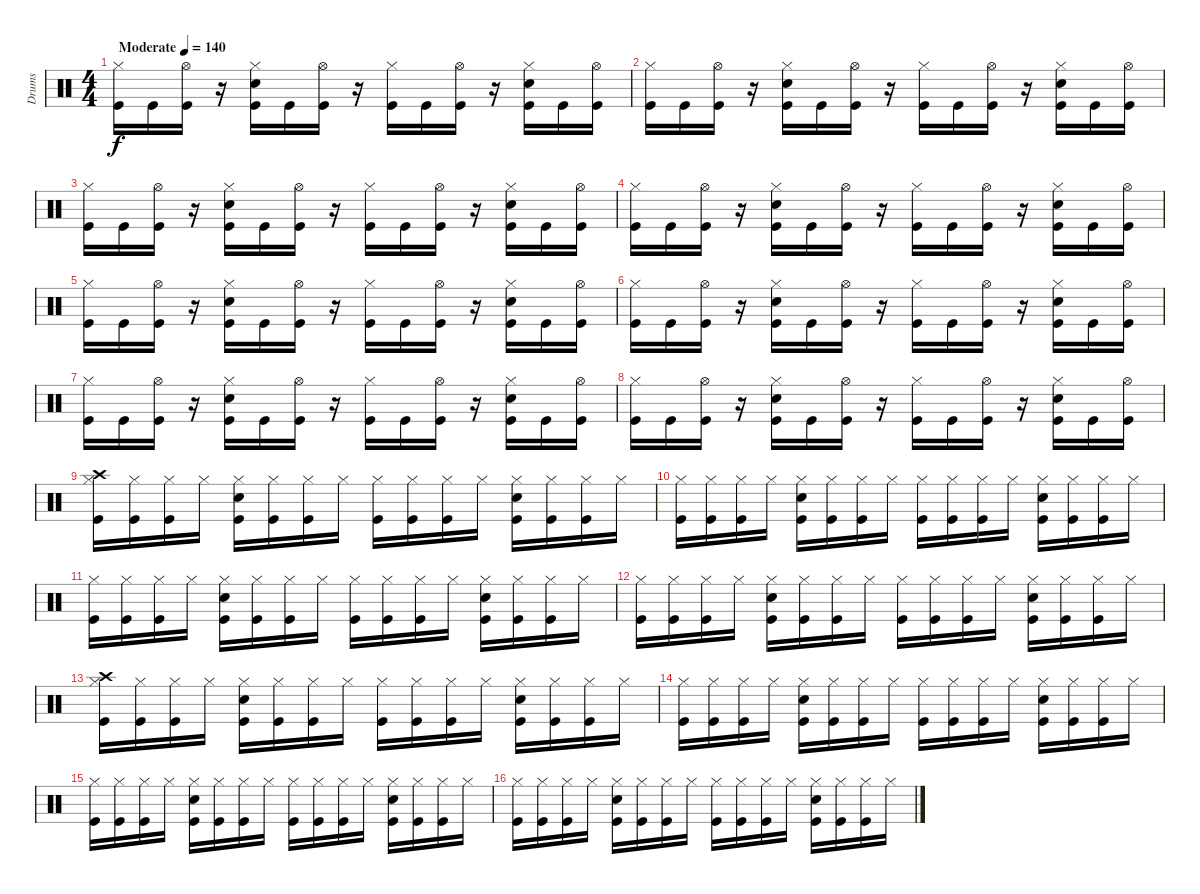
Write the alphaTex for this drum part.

\track ("Drums" "Drums") {instrument percussion}
\staff {score}
\articulation defaults
\ts (4 4)
\tempo (140 "Moderate")
\clef neutral
\ks c
("Hi-Hat (closed)" "Kick (hit)").16{dy f} "Kick (hit)".16 ("Hi-Hat (open)" "Kick (hit)").16 r.16 ("Hi-Hat (closed)" "Electric Snare (hit)" "Kick (hit)").16 "Kick (hit)".16 ("Kick (hit)" "Hi-Hat (open)").16 r.16 ("Hi-Hat (closed)" "Kick (hit)").16 "Kick (hit)".16 ("Kick (hit)" "Hi-Hat (open)").16 r.16 ("Hi-Hat (closed)" "Electric Snare (hit)" "Kick (hit)").16 "Kick (hit)".16 ("Kick (hit)" "Hi-Hat (open)").16 |
("Hi-Hat (closed)" "Kick (hit)").16 "Kick (hit)".16 ("Hi-Hat (open)" "Kick (hit)").16 r.16 ("Hi-Hat (closed)" "Electric Snare (hit)" "Kick (hit)").16 "Kick (hit)".16 ("Kick (hit)" "Hi-Hat (open)").16 r.16 ("Hi-Hat (closed)" "Kick (hit)").16 "Kick (hit)".16 ("Kick (hit)" "Hi-Hat (open)").16 r.16 ("Hi-Hat (closed)" "Electric Snare (hit)" "Kick (hit)").16 "Kick (hit)".16 ("Kick (hit)" "Hi-Hat (open)").16 |
("Hi-Hat (closed)" "Kick (hit)").16 "Kick (hit)".16 ("Hi-Hat (open)" "Kick (hit)").16 r.16 ("Hi-Hat (closed)" "Electric Snare (hit)" "Kick (hit)").16 "Kick (hit)".16 ("Kick (hit)" "Hi-Hat (open)").16 r.16 ("Hi-Hat (closed)" "Kick (hit)").16 "Kick (hit)".16 ("Kick (hit)" "Hi-Hat (open)").16 r.16 ("Hi-Hat (closed)" "Electric Snare (hit)" "Kick (hit)").16 "Kick (hit)".16 ("Kick (hit)" "Hi-Hat (open)").16 |
("Hi-Hat (closed)" "Kick (hit)").16 "Kick (hit)".16 ("Hi-Hat (open)" "Kick (hit)").16 r.16 ("Hi-Hat (closed)" "Electric Snare (hit)" "Kick (hit)").16 "Kick (hit)".16 ("Kick (hit)" "Hi-Hat (open)").16 r.16 ("Hi-Hat (closed)" "Kick (hit)").16 "Kick (hit)".16 ("Kick (hit)" "Hi-Hat (open)").16 r.16 ("Hi-Hat (closed)" "Electric Snare (hit)" "Kick (hit)").16 "Kick (hit)".16 ("Kick (hit)" "Hi-Hat (open)").16 |
("Hi-Hat (closed)" "Kick (hit)").16 "Kick (hit)".16 ("Hi-Hat (open)" "Kick (hit)").16 r.16 ("Hi-Hat (closed)" "Electric Snare (hit)" "Kick (hit)").16 "Kick (hit)".16 ("Kick (hit)" "Hi-Hat (open)").16 r.16 ("Hi-Hat (closed)" "Kick (hit)").16 "Kick (hit)".16 ("Kick (hit)" "Hi-Hat (open)").16 r.16 ("Hi-Hat (closed)" "Electric Snare (hit)" "Kick (hit)").16 "Kick (hit)".16 ("Kick (hit)" "Hi-Hat (open)").16 |
("Hi-Hat (closed)" "Kick (hit)").16 "Kick (hit)".16 ("Hi-Hat (open)" "Kick (hit)").16 r.16 ("Hi-Hat (closed)" "Electric Snare (hit)" "Kick (hit)").16 "Kick (hit)".16 ("Kick (hit)" "Hi-Hat (open)").16 r.16 ("Hi-Hat (closed)" "Kick (hit)").16 "Kick (hit)".16 ("Kick (hit)" "Hi-Hat (open)").16 r.16 ("Hi-Hat (closed)" "Electric Snare (hit)" "Kick (hit)").16 "Kick (hit)".16 ("Kick (hit)" "Hi-Hat (open)").16 |
("Hi-Hat (closed)" "Kick (hit)").16 "Kick (hit)".16 ("Hi-Hat (open)" "Kick (hit)").16 r.16 ("Hi-Hat (closed)" "Electric Snare (hit)" "Kick (hit)").16 "Kick (hit)".16 ("Kick (hit)" "Hi-Hat (open)").16 r.16 ("Hi-Hat (closed)" "Kick (hit)").16 "Kick (hit)".16 ("Kick (hit)" "Hi-Hat (open)").16 r.16 ("Hi-Hat (closed)" "Electric Snare (hit)" "Kick (hit)").16 "Kick (hit)".16 ("Kick (hit)" "Hi-Hat (open)").16 |
("Hi-Hat (closed)" "Kick (hit)").16 "Kick (hit)".16 ("Hi-Hat (open)" "Kick (hit)").16 r.16 ("Hi-Hat (closed)" "Electric Snare (hit)" "Kick (hit)").16 "Kick (hit)".16 ("Kick (hit)" "Hi-Hat (open)").16 r.16 ("Hi-Hat (closed)" "Kick (hit)").16 "Kick (hit)".16 ("Kick (hit)" "Hi-Hat (open)").16 r.16 ("Hi-Hat (closed)" "Electric Snare (hit)" "Kick (hit)").16 "Kick (hit)".16 ("Kick (hit)" "Hi-Hat (open)").16 |
("Hi-Hat (closed)" "Kick (hit)" "Crash high (hit)").16 ("Hi-Hat (closed)" "Kick (hit)").16 ("Hi-Hat (closed)" "Kick (hit)").16 "Hi-Hat (closed)".16 ("Hi-Hat (closed)" "Electric Snare (hit)" "Kick (hit)").16 ("Kick (hit)" "Hi-Hat (closed)").16 ("Kick (hit)" "Hi-Hat (closed)").16 "Hi-Hat (closed)".16 ("Hi-Hat (closed)" "Kick (hit)").16 ("Kick (hit)" "Hi-Hat (closed)").16 ("Kick (hit)" "Hi-Hat (closed)").16 "Hi-Hat (closed)".16 ("Hi-Hat (closed)" "Electric Snare (hit)" "Kick (hit)").16 ("Kick (hit)" "Hi-Hat (closed)").16 ("Kick (hit)" "Hi-Hat (closed)").16 "Hi-Hat (closed)".16 |
("Hi-Hat (closed)" "Kick (hit)").16 ("Hi-Hat (closed)" "Kick (hit)").16 ("Hi-Hat (closed)" "Kick (hit)").16 "Hi-Hat (closed)".16 ("Hi-Hat (closed)" "Electric Snare (hit)" "Kick (hit)").16 ("Kick (hit)" "Hi-Hat (closed)").16 ("Kick (hit)" "Hi-Hat (closed)").16 "Hi-Hat (closed)".16 ("Hi-Hat (closed)" "Kick (hit)").16 ("Kick (hit)" "Hi-Hat (closed)").16 ("Kick (hit)" "Hi-Hat (closed)").16 "Hi-Hat (closed)".16 ("Hi-Hat (closed)" "Electric Snare (hit)" "Kick (hit)").16 ("Kick (hit)" "Hi-Hat (closed)").16 ("Kick (hit)" "Hi-Hat (closed)").16 "Hi-Hat (closed)".16 |
("Hi-Hat (closed)" "Kick (hit)").16 ("Hi-Hat (closed)" "Kick (hit)").16 ("Hi-Hat (closed)" "Kick (hit)").16 "Hi-Hat (closed)".16 ("Hi-Hat (closed)" "Electric Snare (hit)" "Kick (hit)").16 ("Kick (hit)" "Hi-Hat (closed)").16 ("Kick (hit)" "Hi-Hat (closed)").16 "Hi-Hat (closed)".16 ("Hi-Hat (closed)" "Kick (hit)").16 ("Kick (hit)" "Hi-Hat (closed)").16 ("Kick (hit)" "Hi-Hat (closed)").16 "Hi-Hat (closed)".16 ("Hi-Hat (closed)" "Electric Snare (hit)" "Kick (hit)").16 ("Kick (hit)" "Hi-Hat (closed)").16 ("Kick (hit)" "Hi-Hat (closed)").16 "Hi-Hat (closed)".16 |
("Hi-Hat (closed)" "Kick (hit)").16 ("Hi-Hat (closed)" "Kick (hit)").16 ("Hi-Hat (closed)" "Kick (hit)").16 "Hi-Hat (closed)".16 ("Hi-Hat (closed)" "Electric Snare (hit)" "Kick (hit)").16 ("Kick (hit)" "Hi-Hat (closed)").16 ("Kick (hit)" "Hi-Hat (closed)").16 "Hi-Hat (closed)".16 ("Hi-Hat (closed)" "Kick (hit)").16 ("Kick (hit)" "Hi-Hat (closed)").16 ("Kick (hit)" "Hi-Hat (closed)").16 "Hi-Hat (closed)".16 ("Hi-Hat (closed)" "Electric Snare (hit)" "Kick (hit)").16 ("Kick (hit)" "Hi-Hat (closed)").16 ("Kick (hit)" "Hi-Hat (closed)").16 "Hi-Hat (closed)".16 |
("Hi-Hat (closed)" "Kick (hit)" "Crash high (hit)").16 ("Hi-Hat (closed)" "Kick (hit)").16 ("Hi-Hat (closed)" "Kick (hit)").16 "Hi-Hat (closed)".16 ("Hi-Hat (closed)" "Electric Snare (hit)" "Kick (hit)").16 ("Kick (hit)" "Hi-Hat (closed)").16 ("Kick (hit)" "Hi-Hat (closed)").16 "Hi-Hat (closed)".16 ("Hi-Hat (closed)" "Kick (hit)").16 ("Kick (hit)" "Hi-Hat (closed)").16 ("Kick (hit)" "Hi-Hat (closed)").16 "Hi-Hat (closed)".16 ("Hi-Hat (closed)" "Electric Snare (hit)" "Kick (hit)").16 ("Kick (hit)" "Hi-Hat (closed)").16 ("Kick (hit)" "Hi-Hat (closed)").16 "Hi-Hat (closed)".16 |
("Hi-Hat (closed)" "Kick (hit)").16 ("Hi-Hat (closed)" "Kick (hit)").16 ("Hi-Hat (closed)" "Kick (hit)").16 "Hi-Hat (closed)".16 ("Hi-Hat (closed)" "Electric Snare (hit)" "Kick (hit)").16 ("Kick (hit)" "Hi-Hat (closed)").16 ("Kick (hit)" "Hi-Hat (closed)").16 "Hi-Hat (closed)".16 ("Hi-Hat (closed)" "Kick (hit)").16 ("Kick (hit)" "Hi-Hat (closed)").16 ("Kick (hit)" "Hi-Hat (closed)").16 "Hi-Hat (closed)".16 ("Hi-Hat (closed)" "Electric Snare (hit)" "Kick (hit)").16 ("Kick (hit)" "Hi-Hat (closed)").16 ("Kick (hit)" "Hi-Hat (closed)").16 "Hi-Hat (closed)".16 |
("Hi-Hat (closed)" "Kick (hit)").16 ("Hi-Hat (closed)" "Kick (hit)").16 ("Hi-Hat (closed)" "Kick (hit)").16 "Hi-Hat (closed)".16 ("Hi-Hat (closed)" "Electric Snare (hit)" "Kick (hit)").16 ("Kick (hit)" "Hi-Hat (closed)").16 ("Kick (hit)" "Hi-Hat (closed)").16 "Hi-Hat (closed)".16 ("Hi-Hat (closed)" "Kick (hit)").16 ("Kick (hit)" "Hi-Hat (closed)").16 ("Kick (hit)" "Hi-Hat (closed)").16 "Hi-Hat (closed)".16 ("Hi-Hat (closed)" "Electric Snare (hit)" "Kick (hit)").16 ("Kick (hit)" "Hi-Hat (closed)").16 ("Kick (hit)" "Hi-Hat (closed)").16 "Hi-Hat (closed)".16 |
("Hi-Hat (closed)" "Kick (hit)").16 ("Hi-Hat (closed)" "Kick (hit)").16 ("Hi-Hat (closed)" "Kick (hit)").16 "Hi-Hat (closed)".16 ("Hi-Hat (closed)" "Electric Snare (hit)" "Kick (hit)").16 ("Kick (hit)" "Hi-Hat (closed)").16 ("Kick (hit)" "Hi-Hat (closed)").16 "Hi-Hat (closed)".16 ("Hi-Hat (closed)" "Kick (hit)").16 ("Kick (hit)" "Hi-Hat (closed)").16 ("Kick (hit)" "Hi-Hat (closed)").16 "Hi-Hat (closed)".16 ("Hi-Hat (closed)" "Electric Snare (hit)" "Kick (hit)").16 ("Kick (hit)" "Hi-Hat (closed)").16 ("Kick (hit)" "Hi-Hat (closed)").16 "Hi-Hat (closed)".16
